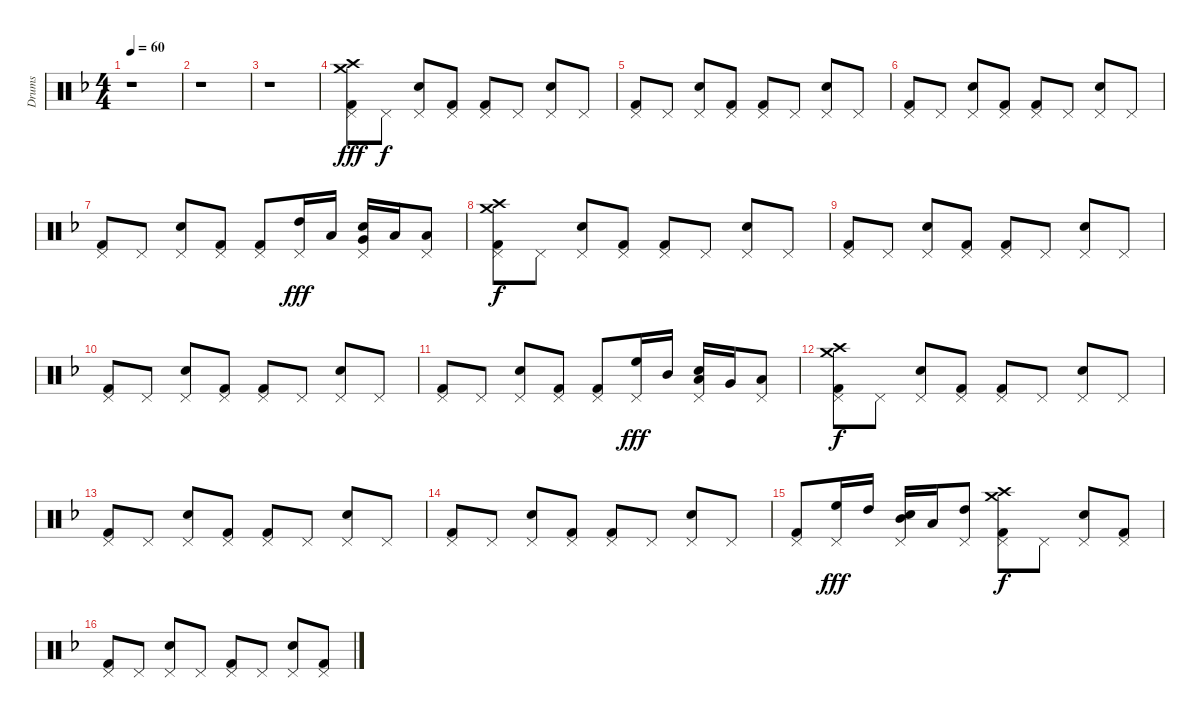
\track ("Drums" "Drums") {instrument percussion}
\staff {score}
\articulation defaults
\ts (4 4)
\tempo 60
\clef neutral
\ks dminor
r.1{dy fff} |
r.1 |
r.1 |
("Pedal Hi-Hat (hit)" "Kick (hit) 2" "Crash medium (hit)" "Crash high (hit)").8 "Pedal Hi-Hat (hit)".8{dy f} ("Pedal Hi-Hat (hit)" "Snare (hit) 2").8 ("Pedal Hi-Hat (hit)" "Kick (hit) 2").8 ("Pedal Hi-Hat (hit)" "Kick (hit) 2").8 "Pedal Hi-Hat (hit)".8 ("Pedal Hi-Hat (hit)" "Snare (hit) 2").8 "Pedal Hi-Hat (hit)".8 |
("Pedal Hi-Hat (hit)" "Kick (hit) 2").8 "Pedal Hi-Hat (hit)".8 ("Pedal Hi-Hat (hit)" "Snare (hit) 2").8 ("Pedal Hi-Hat (hit)" "Kick (hit) 2").8 ("Pedal Hi-Hat (hit)" "Kick (hit) 2").8 "Pedal Hi-Hat (hit)".8 ("Pedal Hi-Hat (hit)" "Snare (hit) 2").8 "Pedal Hi-Hat (hit)".8 |
("Pedal Hi-Hat (hit)" "Kick (hit) 2").8 "Pedal Hi-Hat (hit)".8 ("Pedal Hi-Hat (hit)" "Snare (hit) 2").8 ("Pedal Hi-Hat (hit)" "Kick (hit) 2").8 ("Pedal Hi-Hat (hit)" "Kick (hit) 2").8 "Pedal Hi-Hat (hit)".8 ("Pedal Hi-Hat (hit)" "Snare (hit) 2").8 "Pedal Hi-Hat (hit)".8 |
("Pedal Hi-Hat (hit)" "Kick (hit) 2").8 "Pedal Hi-Hat (hit)".8 ("Pedal Hi-Hat (hit)" "Snare (hit) 2").8 ("Pedal Hi-Hat (hit)" "Kick (hit) 2").8 ("Pedal Hi-Hat (hit)" "Kick (hit) 2").8 ("Pedal Hi-Hat (hit)" "High Tom (hit)").16{dy fff} "Low Tom (hit)".16 ("Pedal Hi-Hat (hit)" "Snare (hit) 2" "Very Low Tom (hit)").16 "Low Floor Tom (hit)".16 ("Pedal Hi-Hat (hit)" "Low Tom (hit)").8 |
("Pedal Hi-Hat (hit)" "Kick (hit) 2" "Crash medium (hit)" "Crash high (hit)").8{dy f} "Pedal Hi-Hat (hit)".8 ("Pedal Hi-Hat (hit)" "Snare (hit) 2").8 ("Pedal Hi-Hat (hit)" "Kick (hit) 2").8 ("Pedal Hi-Hat (hit)" "Kick (hit) 2").8 "Pedal Hi-Hat (hit)".8 ("Pedal Hi-Hat (hit)" "Snare (hit) 2").8 "Pedal Hi-Hat (hit)".8 |
("Pedal Hi-Hat (hit)" "Kick (hit) 2").8 "Pedal Hi-Hat (hit)".8 ("Pedal Hi-Hat (hit)" "Snare (hit) 2").8 ("Pedal Hi-Hat (hit)" "Kick (hit) 2").8 ("Pedal Hi-Hat (hit)" "Kick (hit) 2").8 "Pedal Hi-Hat (hit)".8 ("Pedal Hi-Hat (hit)" "Snare (hit) 2").8 "Pedal Hi-Hat (hit)".8 |
("Pedal Hi-Hat (hit)" "Kick (hit) 2").8 "Pedal Hi-Hat (hit)".8 ("Pedal Hi-Hat (hit)" "Snare (hit) 2").8 ("Pedal Hi-Hat (hit)" "Kick (hit) 2").8 ("Pedal Hi-Hat (hit)" "Kick (hit) 2").8 "Pedal Hi-Hat (hit)".8 ("Pedal Hi-Hat (hit)" "Snare (hit) 2").8 "Pedal Hi-Hat (hit)".8 |
("Pedal Hi-Hat (hit)" "Kick (hit) 2").8 "Pedal Hi-Hat (hit)".8 ("Pedal Hi-Hat (hit)" "Snare (hit) 2").8 ("Pedal Hi-Hat (hit)" "Kick (hit) 2").8 ("Pedal Hi-Hat (hit)" "Kick (hit) 2").8 ("Pedal Hi-Hat (hit)" "High Floor Tom (hit)").16{dy fff} "Mid Tom (hit)".16 ("Pedal Hi-Hat (hit)" "Snare (hit) 2" "Low Tom (hit)").16 "Very Low Tom (hit)".16 ("Pedal Hi-Hat (hit)" "Low Floor Tom (hit)").8 |
("Pedal Hi-Hat (hit)" "Kick (hit) 2" "Crash medium (hit)" "Crash high (hit)").8{dy f} "Pedal Hi-Hat (hit)".8 ("Pedal Hi-Hat (hit)" "Snare (hit) 2").8 ("Pedal Hi-Hat (hit)" "Kick (hit) 2").8 ("Pedal Hi-Hat (hit)" "Kick (hit) 2").8 "Pedal Hi-Hat (hit)".8 ("Pedal Hi-Hat (hit)" "Snare (hit) 2").8 "Pedal Hi-Hat (hit)".8 |
("Pedal Hi-Hat (hit)" "Kick (hit) 2").8 "Pedal Hi-Hat (hit)".8 ("Pedal Hi-Hat (hit)" "Snare (hit) 2").8 ("Pedal Hi-Hat (hit)" "Kick (hit) 2").8 ("Pedal Hi-Hat (hit)" "Kick (hit) 2").8 "Pedal Hi-Hat (hit)".8 ("Pedal Hi-Hat (hit)" "Snare (hit) 2").8 "Pedal Hi-Hat (hit)".8 |
("Pedal Hi-Hat (hit)" "Kick (hit) 2").8 "Pedal Hi-Hat (hit)".8 ("Pedal Hi-Hat (hit)" "Snare (hit) 2").8 ("Pedal Hi-Hat (hit)" "Kick (hit) 2").8 ("Pedal Hi-Hat (hit)" "Kick (hit) 2").8 "Pedal Hi-Hat (hit)".8 ("Pedal Hi-Hat (hit)" "Snare (hit) 2").8 "Pedal Hi-Hat (hit)".8 |
("Pedal Hi-Hat (hit)" "Kick (hit) 2").8 ("Pedal Hi-Hat (hit)" "High Floor Tom (hit)").16{dy fff} "High Tom (hit)".16 ("Pedal Hi-Hat (hit)" "Snare (hit) 2" "Mid Tom (hit)").16 "Low Tom (hit)".16 ("Pedal Hi-Hat (hit)" "High Tom (hit)").8 ("Pedal Hi-Hat (hit)" "Kick (hit) 2" "Crash medium (hit)" "Crash high (hit)").8{dy f} "Pedal Hi-Hat (hit)".8 ("Pedal Hi-Hat (hit)" "Snare (hit) 2").8 ("Pedal Hi-Hat (hit)" "Kick (hit) 2").8 |
("Pedal Hi-Hat (hit)" "Kick (hit) 2").8 "Pedal Hi-Hat (hit)".8 ("Pedal Hi-Hat (hit)" "Snare (hit) 2").8 "Pedal Hi-Hat (hit)".8 ("Pedal Hi-Hat (hit)" "Kick (hit) 2").8 "Pedal Hi-Hat (hit)".8 ("Pedal Hi-Hat (hit)" "Snare (hit) 2").8 ("Pedal Hi-Hat (hit)" "Kick (hit) 2").8
